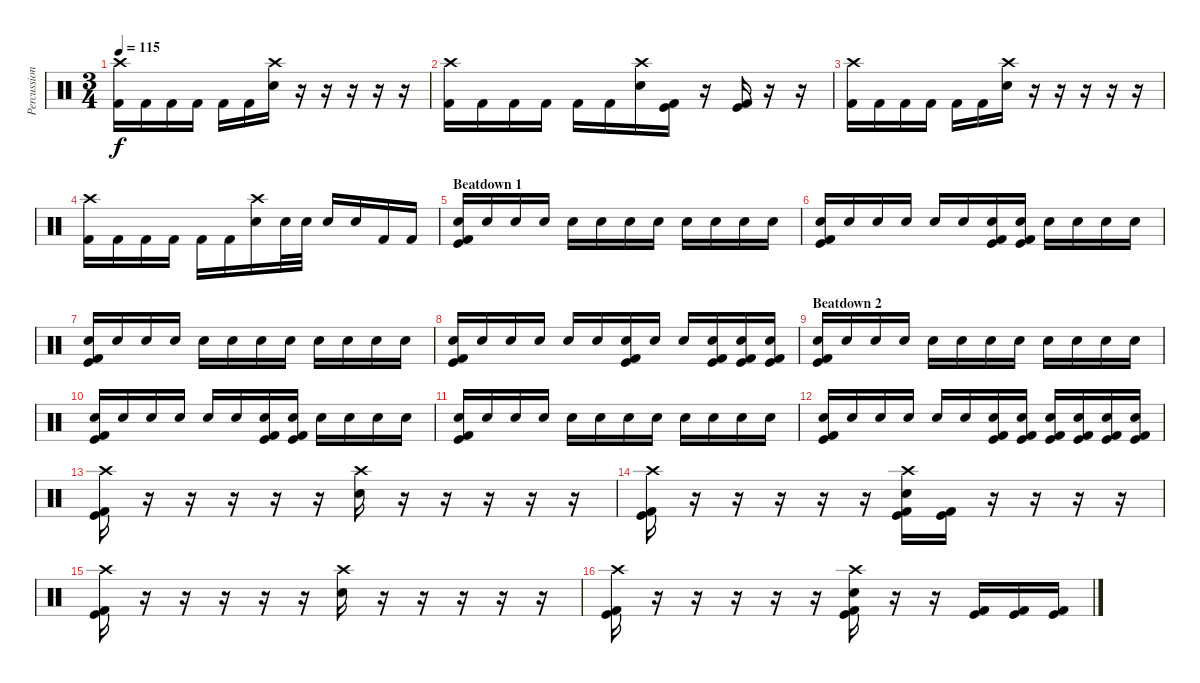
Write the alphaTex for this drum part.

\track ("Percussion" "Percussion") {instrument percussion}
\staff {score}
\articulation defaults
\ts (3 4)
\tempo 115
\clef neutral
\ks c
("Crash high (hit)" "Kick (hit) 2").16{dy f} "Kick (hit) 2".16 "Kick (hit) 2".16 "Kick (hit) 2".16 "Kick (hit) 2".16 "Kick (hit) 2".16 ("Crash high (hit)" "Electric Snare (hit)").16 r.16 r.16 r.16 r.16 r.16 |
("Crash high (hit)" "Kick (hit) 2").16 "Kick (hit) 2".16 "Kick (hit) 2".16 "Kick (hit) 2".16 "Kick (hit) 2".16 "Kick (hit) 2".16 ("Crash high (hit)" "Electric Snare (hit)").16 ("Kick (hit)" "Kick (hit) 2").16 r.16 ("Kick (hit)" "Kick (hit) 2").16 r.16 r.16 |
("Crash high (hit)" "Kick (hit) 2").16 "Kick (hit) 2".16 "Kick (hit) 2".16 "Kick (hit) 2".16 "Kick (hit) 2".16 "Kick (hit) 2".16 ("Crash high (hit)" "Electric Snare (hit)").16 r.16 r.16 r.16 r.16 r.16 |
("Crash high (hit)" "Kick (hit) 2").16 "Kick (hit) 2".16 "Kick (hit) 2".16 "Kick (hit) 2".16 "Kick (hit) 2".16 "Kick (hit) 2".16 ("Crash high (hit)" "Electric Snare (hit)").16 "Electric Snare (hit)".32 "Electric Snare (hit)".32 "Electric Snare (hit)".16 "Electric Snare (hit)".16 "Kick (hit) 2".16 "Kick (hit) 2".16 |
\section ("" "Beatdown 1")
("Electric Snare (hit)" "Kick (hit)" "Kick (hit) 2").16 "Electric Snare (hit)".16 "Electric Snare (hit)".16 "Electric Snare (hit)".16 "Electric Snare (hit)".16 "Electric Snare (hit)".16 "Electric Snare (hit)".16 "Electric Snare (hit)".16 "Electric Snare (hit)".16 "Electric Snare (hit)".16 "Electric Snare (hit)".16 "Electric Snare (hit)".16 |
("Electric Snare (hit)" "Kick (hit)" "Kick (hit) 2").16 "Electric Snare (hit)".16 "Electric Snare (hit)".16 "Electric Snare (hit)".16 "Electric Snare (hit)".16 "Electric Snare (hit)".16 ("Electric Snare (hit)" "Kick (hit)" "Kick (hit) 2").16 ("Electric Snare (hit)" "Kick (hit)" "Kick (hit) 2").16 "Electric Snare (hit)".16 "Electric Snare (hit)".16 "Electric Snare (hit)".16 "Electric Snare (hit)".16 |
("Electric Snare (hit)" "Kick (hit)" "Kick (hit) 2").16 "Electric Snare (hit)".16 "Electric Snare (hit)".16 "Electric Snare (hit)".16 "Electric Snare (hit)".16 "Electric Snare (hit)".16 "Electric Snare (hit)".16 "Electric Snare (hit)".16 "Electric Snare (hit)".16 "Electric Snare (hit)".16 "Electric Snare (hit)".16 "Electric Snare (hit)".16 |
("Electric Snare (hit)" "Kick (hit)" "Kick (hit) 2").16 "Electric Snare (hit)".16 "Electric Snare (hit)".16 "Electric Snare (hit)".16 "Electric Snare (hit)".16 "Electric Snare (hit)".16 ("Electric Snare (hit)" "Kick (hit)" "Kick (hit) 2").16 "Electric Snare (hit)".16 "Electric Snare (hit)".16 ("Electric Snare (hit)" "Kick (hit)" "Kick (hit) 2").16 ("Electric Snare (hit)" "Kick (hit)" "Kick (hit) 2").16 ("Electric Snare (hit)" "Kick (hit)" "Kick (hit) 2").16 |
\section ("" "Beatdown 2")
("Electric Snare (hit)" "Kick (hit)" "Kick (hit) 2").16 "Electric Snare (hit)".16 "Electric Snare (hit)".16 "Electric Snare (hit)".16 "Electric Snare (hit)".16 "Electric Snare (hit)".16 "Electric Snare (hit)".16 "Electric Snare (hit)".16 "Electric Snare (hit)".16 "Electric Snare (hit)".16 "Electric Snare (hit)".16 "Electric Snare (hit)".16 |
("Electric Snare (hit)" "Kick (hit)" "Kick (hit) 2").16 "Electric Snare (hit)".16 "Electric Snare (hit)".16 "Electric Snare (hit)".16 "Electric Snare (hit)".16 "Electric Snare (hit)".16 ("Electric Snare (hit)" "Kick (hit)" "Kick (hit) 2").16 ("Electric Snare (hit)" "Kick (hit)" "Kick (hit) 2").16 "Electric Snare (hit)".16 "Electric Snare (hit)".16 "Electric Snare (hit)".16 "Electric Snare (hit)".16 |
("Electric Snare (hit)" "Kick (hit)" "Kick (hit) 2").16 "Electric Snare (hit)".16 "Electric Snare (hit)".16 "Electric Snare (hit)".16 "Electric Snare (hit)".16 "Electric Snare (hit)".16 "Electric Snare (hit)".16 "Electric Snare (hit)".16 "Electric Snare (hit)".16 "Electric Snare (hit)".16 "Electric Snare (hit)".16 "Electric Snare (hit)".16 |
("Electric Snare (hit)" "Kick (hit)" "Kick (hit) 2").16 "Electric Snare (hit)".16 "Electric Snare (hit)".16 "Electric Snare (hit)".16 "Electric Snare (hit)".16 "Electric Snare (hit)".16 ("Electric Snare (hit)" "Kick (hit)" "Kick (hit) 2").16 ("Electric Snare (hit)" "Kick (hit)" "Kick (hit) 2").16 ("Electric Snare (hit)" "Kick (hit)" "Kick (hit) 2").16 ("Electric Snare (hit)" "Kick (hit)" "Kick (hit) 2").16 ("Electric Snare (hit)" "Kick (hit)" "Kick (hit) 2").16 ("Electric Snare (hit)" "Kick (hit)" "Kick (hit) 2").16 |
("Crash high (hit)" "Kick (hit)" "Kick (hit) 2").16 r.16 r.16 r.16 r.16 r.16 ("Crash high (hit)" "Electric Snare (hit)").16 r.16 r.16 r.16 r.16 r.16 |
("Crash high (hit)" "Kick (hit)" "Kick (hit) 2").16 r.16 r.16 r.16 r.16 r.16 ("Crash high (hit)" "Electric Snare (hit)" "Kick (hit)" "Kick (hit) 2").16 ("Kick (hit)" "Kick (hit) 2").16 r.16 r.16 r.16 r.16 |
("Crash high (hit)" "Kick (hit)" "Kick (hit) 2").16 r.16 r.16 r.16 r.16 r.16 ("Crash high (hit)" "Electric Snare (hit)").16 r.16 r.16 r.16 r.16 r.16 |
("Crash high (hit)" "Kick (hit)" "Kick (hit) 2").16 r.16 r.16 r.16 r.16 r.16 ("Crash high (hit)" "Electric Snare (hit)" "Kick (hit)" "Kick (hit) 2").16 r.16 r.16 ("Kick (hit)" "Kick (hit) 2").16 ("Kick (hit)" "Kick (hit) 2").16 ("Kick (hit)" "Kick (hit) 2").16
